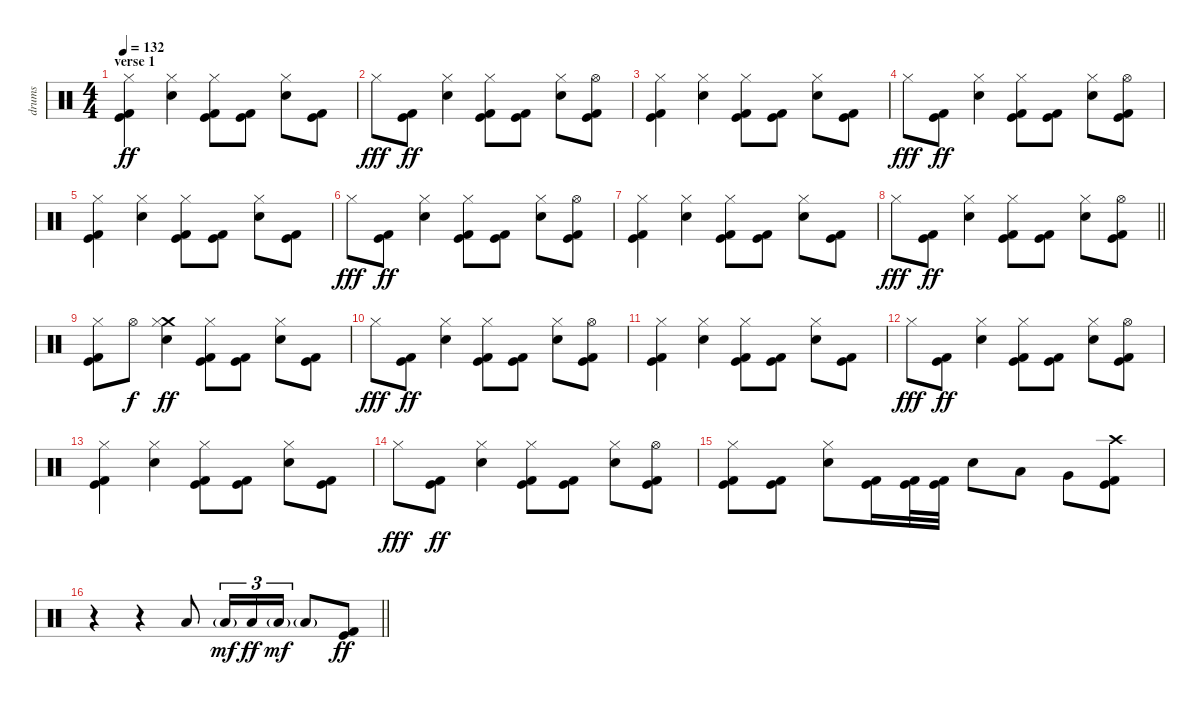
\track ("drums" "drums") {instrument percussion}
\staff {score}
\articulation defaults
\ts (4 4)
\section ("" "verse 1")
\tempo 132
\clef neutral
\ks c
("Hi-Hat (closed)" "Kick (hit)" "Kick (hit) 2").4{dy ff} ("Electric Snare (hit)" "Hi-Hat (closed)").4 ("Hi-Hat (closed)" "Kick (hit)" "Kick (hit) 2").8 ("Kick (hit)" "Kick (hit) 2").8 ("Electric Snare (hit)" "Hi-Hat (closed)").8 ("Kick (hit)" "Kick (hit) 2").8 |
"Hi-Hat (closed)".8{dy fff} ("Kick (hit)" "Kick (hit) 2").8{dy ff} ("Electric Snare (hit)" "Hi-Hat (closed)").4 ("Hi-Hat (closed)" "Kick (hit)" "Kick (hit) 2").8 ("Kick (hit)" "Kick (hit) 2").8 ("Electric Snare (hit)" "Hi-Hat (closed)").8 ("Hi-Hat (open)" "Kick (hit)" "Kick (hit) 2").8 |
("Hi-Hat (closed)" "Kick (hit)" "Kick (hit) 2").4 ("Electric Snare (hit)" "Hi-Hat (closed)").4 ("Hi-Hat (closed)" "Kick (hit)" "Kick (hit) 2").8 ("Kick (hit)" "Kick (hit) 2").8 ("Electric Snare (hit)" "Hi-Hat (closed)").8 ("Kick (hit)" "Kick (hit) 2").8 |
"Hi-Hat (closed)".8{dy fff} ("Kick (hit)" "Kick (hit) 2").8{dy ff} ("Electric Snare (hit)" "Hi-Hat (closed)").4 ("Hi-Hat (closed)" "Kick (hit)" "Kick (hit) 2").8 ("Kick (hit)" "Kick (hit) 2").8 ("Electric Snare (hit)" "Hi-Hat (closed)").8 ("Hi-Hat (open)" "Kick (hit)" "Kick (hit) 2").8 |
("Hi-Hat (closed)" "Kick (hit)" "Kick (hit) 2").4 ("Electric Snare (hit)" "Hi-Hat (closed)").4 ("Hi-Hat (closed)" "Kick (hit)" "Kick (hit) 2").8 ("Kick (hit)" "Kick (hit) 2").8 ("Electric Snare (hit)" "Hi-Hat (closed)").8 ("Kick (hit)" "Kick (hit) 2").8 |
"Hi-Hat (closed)".8{dy fff} ("Kick (hit)" "Kick (hit) 2").8{dy ff} ("Electric Snare (hit)" "Hi-Hat (closed)").4 ("Hi-Hat (closed)" "Kick (hit)" "Kick (hit) 2").8 ("Kick (hit)" "Kick (hit) 2").8 ("Electric Snare (hit)" "Hi-Hat (closed)").8 ("Hi-Hat (open)" "Kick (hit)" "Kick (hit) 2").8 |
("Hi-Hat (closed)" "Kick (hit)" "Kick (hit) 2").4 ("Electric Snare (hit)" "Hi-Hat (closed)").4 ("Hi-Hat (closed)" "Kick (hit)" "Kick (hit) 2").8 ("Kick (hit)" "Kick (hit) 2").8 ("Electric Snare (hit)" "Hi-Hat (closed)").8 ("Kick (hit)" "Kick (hit) 2").8 |
\barLineRight lightlight "Hi-Hat (closed)".8{dy fff}
("Kick (hit)" "Kick (hit) 2").8{dy ff} ("Electric Snare (hit)" "Hi-Hat (closed)").4 ("Hi-Hat (closed)" "Kick (hit)" "Kick (hit) 2").8 ("Kick (hit)" "Kick (hit) 2").8 ("Electric Snare (hit)" "Hi-Hat (closed)").8 ("Hi-Hat (open)" "Kick (hit)" "Kick (hit) 2").8 |
\section ("" "")
("Hi-Hat (closed)" "Kick (hit)" "Kick (hit) 2").8 "Hi-Hat (open)".8{dy f} ("Crash medium (hit)" "Electric Snare (hit)" "Hi-Hat (closed)").4{dy ff} ("Hi-Hat (closed)" "Kick (hit)" "Kick (hit) 2").8 ("Kick (hit)" "Kick (hit) 2").8 ("Electric Snare (hit)" "Hi-Hat (closed)").8 ("Kick (hit)" "Kick (hit) 2").8 |
"Hi-Hat (closed)".8{dy fff} ("Kick (hit)" "Kick (hit) 2").8{dy ff} ("Electric Snare (hit)" "Hi-Hat (closed)").4 ("Hi-Hat (closed)" "Kick (hit)" "Kick (hit) 2").8 ("Kick (hit)" "Kick (hit) 2").8 ("Electric Snare (hit)" "Hi-Hat (closed)").8 ("Hi-Hat (open)" "Kick (hit)" "Kick (hit) 2").8 |
("Hi-Hat (closed)" "Kick (hit)" "Kick (hit) 2").4 ("Electric Snare (hit)" "Hi-Hat (closed)").4 ("Hi-Hat (closed)" "Kick (hit)" "Kick (hit) 2").8 ("Kick (hit)" "Kick (hit) 2").8 ("Electric Snare (hit)" "Hi-Hat (closed)").8 ("Kick (hit)" "Kick (hit) 2").8 |
"Hi-Hat (closed)".8{dy fff} ("Kick (hit)" "Kick (hit) 2").8{dy ff} ("Electric Snare (hit)" "Hi-Hat (closed)").4 ("Hi-Hat (closed)" "Kick (hit)" "Kick (hit) 2").8 ("Kick (hit)" "Kick (hit) 2").8 ("Electric Snare (hit)" "Hi-Hat (closed)").8 ("Hi-Hat (open)" "Kick (hit)" "Kick (hit) 2").8 |
("Hi-Hat (closed)" "Kick (hit)" "Kick (hit) 2").4 ("Electric Snare (hit)" "Hi-Hat (closed)").4 ("Hi-Hat (closed)" "Kick (hit)" "Kick (hit) 2").8 ("Kick (hit)" "Kick (hit) 2").8 ("Electric Snare (hit)" "Hi-Hat (closed)").8 ("Kick (hit)" "Kick (hit) 2").8 |
"Hi-Hat (closed)".8{dy fff} ("Kick (hit)" "Kick (hit) 2").8{dy ff} ("Electric Snare (hit)" "Hi-Hat (closed)").4 ("Hi-Hat (closed)" "Kick (hit)" "Kick (hit) 2").8 ("Kick (hit)" "Kick (hit) 2").8 ("Electric Snare (hit)" "Hi-Hat (closed)").8 ("Hi-Hat (open)" "Kick (hit)" "Kick (hit) 2").8 |
("Hi-Hat (closed)" "Kick (hit)" "Kick (hit) 2").8 ("Kick (hit)" "Kick (hit) 2").8 ("Electric Snare (hit)" "Hi-Hat (closed)").8 ("Kick (hit)" "Kick (hit) 2").16 ("Kick (hit)" "Kick (hit) 2").32 ("Kick (hit)" "Kick (hit) 2").32 "Electric Snare (hit)".8 "Low Tom (hit)".8 "Very Low Tom (hit)".8 ("Crash high (hit)" "Kick (hit)" "Kick (hit) 2").8 |
\barLineRight lightlight
r.4 r.4 "Low Tom (hit)".8 "Low Tom (hit)"{g}.16{tu (3 2) dy mf} "Low Tom (hit)".16{tu (3 2) dy ff} "Low Tom (hit)"{g}.16{tu (3 2) dy mf} "Low Tom (hit)"{g}.8 ("Kick (hit)" "Kick (hit) 2").8{dy ff}
